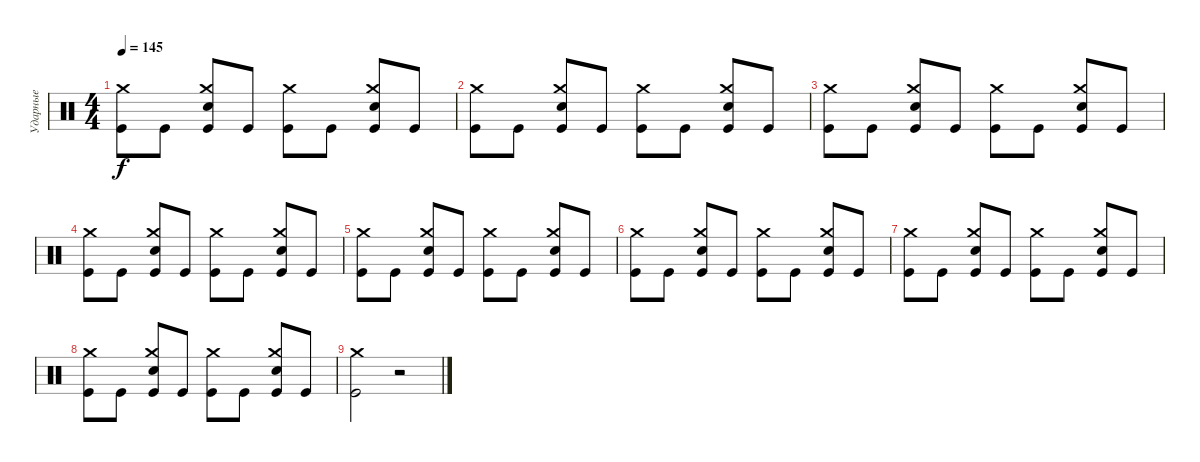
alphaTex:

\track ("Ударные" "Ударные") {instrument percussion}
\staff {score}
\articulation defaults
\ts (4 4)
\tempo 145
\clef neutral
\ks c
("Kick (hit)" "Crash medium (hit)").8{dy f} "Kick (hit)".8 ("Kick (hit)" "Snare (hit) 2" "Crash medium (hit)").8 "Kick (hit)".8 ("Kick (hit)" "Crash medium (hit)").8 "Kick (hit)".8 ("Kick (hit)" "Snare (hit) 2" "Crash medium (hit)").8 "Kick (hit)".8 |
("Kick (hit)" "Crash medium (hit)").8 "Kick (hit)".8 ("Kick (hit)" "Snare (hit) 2" "Crash medium (hit)").8 "Kick (hit)".8 ("Kick (hit)" "Crash medium (hit)").8 "Kick (hit)".8 ("Kick (hit)" "Snare (hit) 2" "Crash medium (hit)").8 "Kick (hit)".8 |
("Kick (hit)" "Crash medium (hit)").8 "Kick (hit)".8 ("Kick (hit)" "Snare (hit) 2" "Crash medium (hit)").8 "Kick (hit)".8 ("Kick (hit)" "Crash medium (hit)").8 "Kick (hit)".8 ("Kick (hit)" "Snare (hit) 2" "Crash medium (hit)").8 "Kick (hit)".8 |
("Kick (hit)" "Crash medium (hit)").8 "Kick (hit)".8 ("Kick (hit)" "Snare (hit) 2" "Crash medium (hit)").8 "Kick (hit)".8 ("Kick (hit)" "Crash medium (hit)").8 "Kick (hit)".8 ("Kick (hit)" "Snare (hit) 2" "Crash medium (hit)").8 "Kick (hit)".8 |
("Kick (hit)" "Crash medium (hit)").8 "Kick (hit)".8 ("Kick (hit)" "Snare (hit) 2" "Crash medium (hit)").8 "Kick (hit)".8 ("Kick (hit)" "Crash medium (hit)").8 "Kick (hit)".8 ("Kick (hit)" "Snare (hit) 2" "Crash medium (hit)").8 "Kick (hit)".8 |
("Kick (hit)" "Crash medium (hit)").8 "Kick (hit)".8 ("Kick (hit)" "Snare (hit) 2" "Crash medium (hit)").8 "Kick (hit)".8 ("Kick (hit)" "Crash medium (hit)").8 "Kick (hit)".8 ("Kick (hit)" "Snare (hit) 2" "Crash medium (hit)").8 "Kick (hit)".8 |
("Kick (hit)" "Crash medium (hit)").8 "Kick (hit)".8 ("Kick (hit)" "Snare (hit) 2" "Crash medium (hit)").8 "Kick (hit)".8 ("Kick (hit)" "Crash medium (hit)").8 "Kick (hit)".8 ("Kick (hit)" "Snare (hit) 2" "Crash medium (hit)").8 "Kick (hit)".8 |
("Kick (hit)" "Crash medium (hit)").8 "Kick (hit)".8 ("Kick (hit)" "Snare (hit) 2" "Crash medium (hit)").8 "Kick (hit)".8 ("Kick (hit)" "Crash medium (hit)").8 "Kick (hit)".8 ("Kick (hit)" "Snare (hit) 2" "Crash medium (hit)").8 "Kick (hit)".8 |
("Kick (hit)" "Crash medium (hit)").2 r.2
